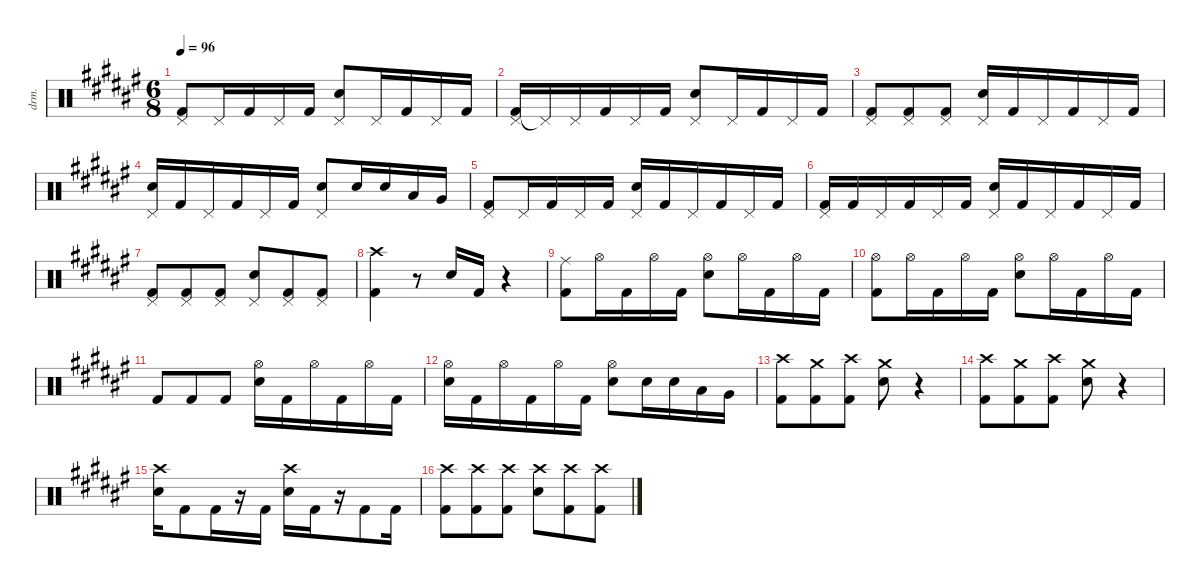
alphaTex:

\defaultSystemsLayout 4
\hideDynamics
\bracketExtendMode nobrackets
\otherSystemsTrackNameOrientation horizontal
\track ("Drumkit" "drm.") {instrument percussion}
\staff {score}
\articulation defaults
\ts (6 8)
\tempo 96
\clef neutral
\ks f#
("Kick (hit) 2"{acc forcenatural} "Pedal Hi-Hat (hit)"{acc #}).8{dy ff} "Pedal Hi-Hat (hit)"{acc #}.16 "Kick (hit) 2"{acc forcenatural}.16 "Pedal Hi-Hat (hit)"{acc #}.16 "Kick (hit) 2"{acc forcenatural}.16 ("Snare (hit) 2"{acc forcenatural} "Pedal Hi-Hat (hit)"{acc #}).8 "Pedal Hi-Hat (hit)"{acc #}.16 "Kick (hit) 2"{acc forcenatural}.16 "Pedal Hi-Hat (hit)"{acc #}.16 "Kick (hit) 2"{acc forcenatural}.16 |
("Kick (hit) 2"{acc forcenatural} "Pedal Hi-Hat (hit)"{acc #}).16 "Pedal Hi-Hat (hit)"{t acc #}.16 "Pedal Hi-Hat (hit)"{acc #}.16 "Kick (hit) 2"{acc forcenatural}.16 "Pedal Hi-Hat (hit)"{acc #}.16 "Kick (hit) 2"{acc forcenatural}.16 ("Snare (hit) 2"{acc forcenatural} "Pedal Hi-Hat (hit)"{acc #}).8 "Pedal Hi-Hat (hit)"{acc #}.16 "Kick (hit) 2"{acc forcenatural}.16 "Pedal Hi-Hat (hit)"{acc #}.16 "Kick (hit) 2"{acc forcenatural}.16 |
("Kick (hit) 2"{acc forcenatural} "Pedal Hi-Hat (hit)"{acc #}).8 ("Kick (hit) 2"{acc forcenatural} "Pedal Hi-Hat (hit)"{acc #}).8 ("Kick (hit) 2"{acc forcenatural} "Pedal Hi-Hat (hit)"{acc #}).8 ("Snare (hit) 2"{acc forcenatural} "Pedal Hi-Hat (hit)"{acc #}).16 "Kick (hit) 2"{acc forcenatural}.16 "Pedal Hi-Hat (hit)"{acc #}.16 "Kick (hit) 2"{acc forcenatural}.16 "Pedal Hi-Hat (hit)"{acc #}.16 "Kick (hit) 2"{acc forcenatural}.16 |
("Snare (hit) 2"{acc forcenatural} "Pedal Hi-Hat (hit)"{acc #}).16 "Kick (hit) 2"{acc forcenatural}.16 "Pedal Hi-Hat (hit)"{acc #}.16 "Kick (hit) 2"{acc forcenatural}.16 "Pedal Hi-Hat (hit)"{acc #}.16 "Kick (hit) 2"{acc forcenatural}.16 ("Snare (hit) 2"{acc forcenatural} "Pedal Hi-Hat (hit)"{acc #}).8 "Snare (hit) 2"{acc forcenatural}.16 "Snare (hit) 2"{acc forcenatural}.16 "Low Tom (hit)"{acc forcenatural}.16 "Very Low Tom (hit)"{acc forcenatural}.16 |
("Kick (hit) 2"{acc forcenatural} "Pedal Hi-Hat (hit)"{acc #}).8 "Pedal Hi-Hat (hit)"{acc #}.16 "Kick (hit) 2"{acc forcenatural}.16 "Pedal Hi-Hat (hit)"{acc #}.16 "Kick (hit) 2"{acc forcenatural}.16 ("Snare (hit) 2"{acc forcenatural} "Pedal Hi-Hat (hit)"{acc #}).16 "Kick (hit) 2"{acc forcenatural}.16 "Pedal Hi-Hat (hit)"{acc #}.16 "Kick (hit) 2"{acc forcenatural}.16 "Pedal Hi-Hat (hit)"{acc #}.16 "Kick (hit) 2"{acc forcenatural}.16 |
("Kick (hit) 2"{acc forcenatural} "Pedal Hi-Hat (hit)"{acc #}).16 "Kick (hit) 2"{acc forcenatural}.16 "Pedal Hi-Hat (hit)"{acc #}.16 "Kick (hit) 2"{acc forcenatural}.16 "Pedal Hi-Hat (hit)"{acc #}.16 "Kick (hit) 2"{acc forcenatural}.16 ("Snare (hit) 2"{acc forcenatural} "Pedal Hi-Hat (hit)"{acc #}).16 "Kick (hit) 2"{acc forcenatural}.16 "Pedal Hi-Hat (hit)"{acc #}.16 "Kick (hit) 2"{acc forcenatural}.16 "Pedal Hi-Hat (hit)"{acc #}.16 "Kick (hit) 2"{acc forcenatural}.16 |
("Kick (hit) 2"{acc forcenatural} "Pedal Hi-Hat (hit)"{acc #}).8 ("Kick (hit) 2"{acc forcenatural} "Pedal Hi-Hat (hit)"{acc #}).8 ("Kick (hit) 2"{acc forcenatural} "Pedal Hi-Hat (hit)"{acc #}).8 ("Snare (hit) 2"{acc forcenatural} "Pedal Hi-Hat (hit)"{acc #}).8 ("Kick (hit) 2"{acc forcenatural} "Pedal Hi-Hat (hit)"{acc #}).8 ("Kick (hit) 2"{acc forcenatural} "Pedal Hi-Hat (hit)"{acc #}).8 |
("Kick (hit) 2"{acc forcenatural} "Crash high (hit)"{acc #}).4 r.8 "Snare (hit) 2"{acc forcenatural}.16 "Kick (hit) 2"{acc forcenatural}.16 r.4 |
("Kick (hit) 2"{acc forcenatural} "Ride (middle)"{acc #}).8 "Hi-Hat (open)"{acc #}.16 "Kick (hit) 2"{acc forcenatural}.16 "Hi-Hat (open)"{acc #}.16 "Kick (hit) 2"{acc forcenatural}.16 ("Snare (hit) 2"{acc forcenatural} "Hi-Hat (open)"{acc #}).8 "Hi-Hat (open)"{acc #}.16 "Kick (hit) 2"{acc forcenatural}.16 "Hi-Hat (open)"{acc #}.16 "Kick (hit) 2"{acc forcenatural}.16 |
("Kick (hit) 2"{acc forcenatural} "Hi-Hat (open)"{acc #}).8 "Hi-Hat (open)"{acc #}.16 "Kick (hit) 2"{acc forcenatural}.16 "Hi-Hat (open)"{acc #}.16 "Kick (hit) 2"{acc forcenatural}.16 ("Snare (hit) 2"{acc forcenatural} "Hi-Hat (open)"{acc #}).8 "Hi-Hat (open)"{acc #}.16 "Kick (hit) 2"{acc forcenatural}.16 "Hi-Hat (open)"{acc #}.16 "Kick (hit) 2"{acc forcenatural}.16 |
"Kick (hit) 2"{acc forcenatural}.8 "Kick (hit) 2"{acc forcenatural}.8 "Kick (hit) 2"{acc forcenatural}.8 ("Snare (hit) 2"{acc forcenatural} "Hi-Hat (open)"{acc #}).16 "Kick (hit) 2"{acc forcenatural}.16 "Hi-Hat (open)"{acc #}.16 "Kick (hit) 2"{acc forcenatural}.16 "Hi-Hat (open)"{acc #}.16 "Kick (hit) 2"{acc forcenatural}.16 |
("Snare (hit) 2"{acc forcenatural} "Hi-Hat (open)"{acc #}).16 "Kick (hit) 2"{acc forcenatural}.16 "Hi-Hat (open)"{acc #}.16 "Kick (hit) 2"{acc forcenatural}.16 "Hi-Hat (open)"{acc #}.16 "Kick (hit) 2"{acc forcenatural}.16 ("Snare (hit) 2"{acc forcenatural} "Hi-Hat (open)"{acc #}).8 "Snare (hit) 2"{acc forcenatural}.16 "Snare (hit) 2"{acc forcenatural}.16 "Low Tom (hit)"{acc forcenatural}.16 "Very Low Tom (hit)"{acc forcenatural}.16 |
("Kick (hit) 2"{acc forcenatural} "Crash high (hit)"{acc #}).8 ("Kick (hit) 2"{acc forcenatural} "Crash medium (hit)"{acc forcenatural}).8 ("Kick (hit) 2"{acc forcenatural} "Crash high (hit)"{acc #}).8 ("Snare (hit) 2"{acc forcenatural} "Crash medium (hit)"{acc forcenatural}).8 r.4 |
("Kick (hit) 2"{acc forcenatural} "Crash high (hit)"{acc #}).8 ("Kick (hit) 2"{acc forcenatural} "Crash medium (hit)"{acc forcenatural}).8 ("Kick (hit) 2"{acc forcenatural} "Crash high (hit)"{acc #}).8 ("Snare (hit) 2"{acc forcenatural} "Crash medium (hit)"{acc forcenatural}).8 r.4 |
("Snare (hit) 2"{acc forcenatural} "Crash high (hit)"{acc #}).16 "Kick (hit) 2"{acc forcenatural}.8 "Kick (hit) 2"{acc forcenatural}.16 r.16 "Kick (hit) 2"{acc forcenatural}.16 ("Snare (hit) 2"{acc forcenatural} "Crash high (hit)"{acc #}).16 "Kick (hit) 2"{acc forcenatural}.16 r.16 "Kick (hit) 2"{acc forcenatural}.8 "Kick (hit) 2"{acc forcenatural}.16 |
("Kick (hit) 2"{acc forcenatural} "Crash high (hit)"{acc #}).8 ("Kick (hit) 2"{acc forcenatural} "Crash high (hit)"{acc #}).8 ("Kick (hit) 2"{acc forcenatural} "Crash high (hit)"{acc #}).8 ("Snare (hit) 2"{acc forcenatural} "Crash high (hit)"{acc #}).8 ("Kick (hit) 2"{acc forcenatural} "Crash high (hit)"{acc #}).8 ("Kick (hit) 2"{acc forcenatural} "Crash high (hit)"{acc #}).8
